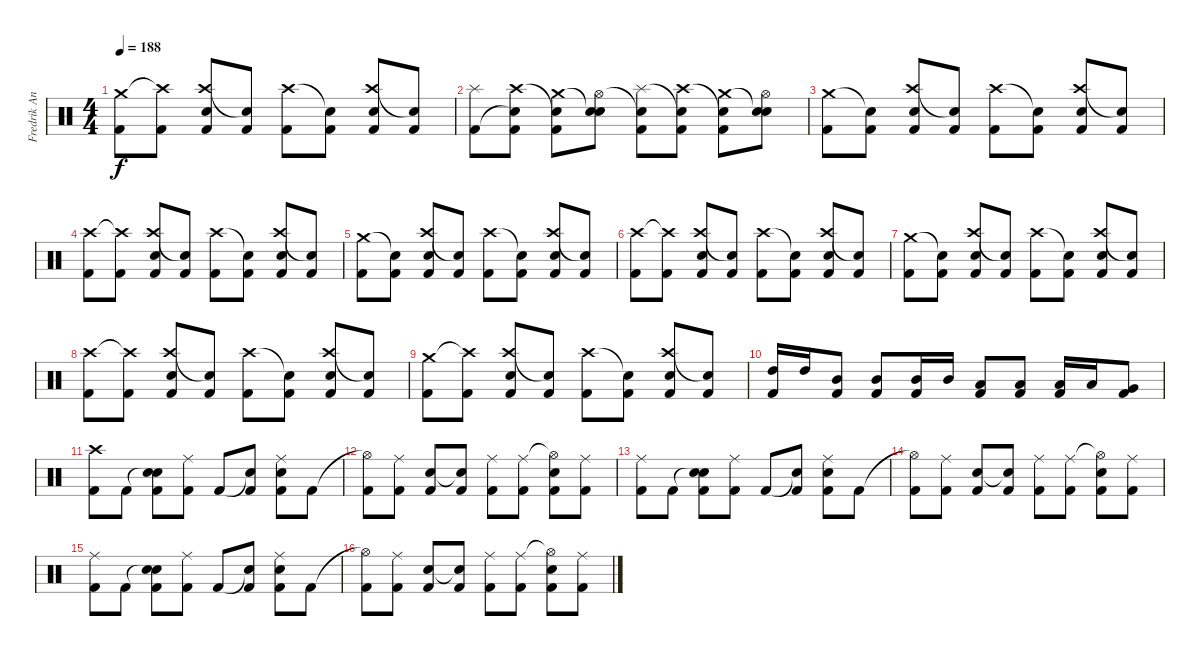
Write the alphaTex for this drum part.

\track ("Fredrik Andersson" "Fredrik An") {instrument percussion}
\staff {score}
\articulation defaults
\ts (4 4)
\tempo 188
\clef neutral
\ks c
("Crash medium (hit)" "Kick (hit) 2").8{dy f} ("Crash high (hit)"{t} "Kick (hit) 2").8 ("Crash high (hit)" "Snare (hit) 2" "Kick (hit) 2").8 ("Snare (hit)"{t} "Kick (hit) 2").8 ("Crash high (hit)" "Kick (hit) 2").8 ("Snare (hit)"{t} "Kick (hit) 2").8 ("Crash high (hit)" "Snare (hit) 2" "Kick (hit) 2").8 ("Snare (hit)"{t} "Kick (hit) 2").8 |
("Splash (hit)" "Kick (hit) 2").8 ("Crash high (hit)" "Snare (hit)"{t} "Kick (hit) 2").8 ("Snare (hit)"{t} "Crash medium (hit)" "Kick (hit) 2").8 ("Hi-Hat (open)" "Snare (hit)"{t} "Snare (hit) 2").8 ("Snare (hit)"{t} "Splash (hit)" "Kick (hit) 2").8 ("Crash high (hit)" "Snare (hit)"{t} "Kick (hit) 2").8 ("Snare (hit)"{t} "Crash medium (hit)" "Kick (hit) 2").8 ("Hi-Hat (open)" "Snare (hit)"{t} "Snare (hit) 2").8 |
("Crash medium (hit)" "Kick (hit) 2").8 ("Snare (hit)"{t} "Kick (hit) 2").8 ("Crash high (hit)" "Snare (hit) 2" "Kick (hit) 2").8 ("Snare (hit)"{t} "Kick (hit) 2").8 ("Crash high (hit)" "Kick (hit) 2").8 ("Snare (hit)"{t} "Kick (hit) 2").8 ("Crash high (hit)" "Snare (hit) 2" "Kick (hit) 2").8 ("Snare (hit)"{t} "Kick (hit) 2").8 |
("Crash high (hit)" "Kick (hit) 2").8 ("Crash high (hit)"{t} "Kick (hit) 2").8 ("Crash high (hit)" "Snare (hit) 2" "Kick (hit) 2").8 ("Snare (hit)"{t} "Kick (hit) 2").8 ("Crash high (hit)" "Kick (hit) 2").8 ("Snare (hit)"{t} "Kick (hit) 2").8 ("Crash high (hit)" "Snare (hit) 2" "Kick (hit) 2").8 ("Snare (hit)"{t} "Kick (hit) 2").8 |
("Crash medium (hit)" "Kick (hit) 2").8 ("Snare (hit)"{t} "Kick (hit) 2").8 ("Crash high (hit)" "Snare (hit) 2" "Kick (hit) 2").8 ("Snare (hit)"{t} "Kick (hit) 2").8 ("Crash high (hit)" "Kick (hit) 2").8 ("Snare (hit)"{t} "Kick (hit) 2").8 ("Crash high (hit)" "Snare (hit) 2" "Kick (hit) 2").8 ("Snare (hit)"{t} "Kick (hit) 2").8 |
("Crash high (hit)" "Kick (hit) 2").8 ("Crash high (hit)"{t} "Kick (hit) 2").8 ("Crash high (hit)" "Snare (hit) 2" "Kick (hit) 2").8 ("Snare (hit)"{t} "Kick (hit) 2").8 ("Crash high (hit)" "Kick (hit) 2").8 ("Snare (hit)"{t} "Kick (hit) 2").8 ("Crash high (hit)" "Snare (hit) 2" "Kick (hit) 2").8 ("Snare (hit)"{t} "Kick (hit) 2").8 |
("Crash medium (hit)" "Kick (hit) 2").8 ("Snare (hit)"{t} "Kick (hit) 2").8 ("Crash high (hit)" "Snare (hit) 2" "Kick (hit) 2").8 ("Snare (hit)"{t} "Kick (hit) 2").8 ("Crash high (hit)" "Kick (hit) 2").8 ("Snare (hit)"{t} "Kick (hit) 2").8 ("Crash high (hit)" "Snare (hit) 2" "Kick (hit) 2").8 ("Snare (hit)"{t} "Kick (hit) 2").8 |
("Crash high (hit)" "Kick (hit) 2").8 ("Crash high (hit)"{t} "Kick (hit) 2").8 ("Crash high (hit)" "Snare (hit) 2" "Kick (hit) 2").8 ("Snare (hit)"{t} "Kick (hit) 2").8 ("Crash high (hit)" "Kick (hit) 2").8 ("Snare (hit)"{t} "Kick (hit) 2").8 ("Crash high (hit)" "Snare (hit) 2" "Kick (hit) 2").8 ("Snare (hit)"{t} "Kick (hit) 2").8 |
("Crash medium (hit)" "Kick (hit) 2").8 ("Crash high (hit)"{t} "Kick (hit) 2").8 ("Crash high (hit)" "Snare (hit) 2" "Kick (hit) 2").8 ("Snare (hit)"{t} "Kick (hit) 2").8 ("Crash high (hit)" "Kick (hit) 2").8 ("Snare (hit)"{t} "Kick (hit) 2").8 ("Crash high (hit)" "Snare (hit) 2" "Kick (hit) 2").8 ("Snare (hit)"{t} "Kick (hit) 2").8 |
("High Tom (hit)" "Kick (hit) 2").16 "High Tom (hit)".16 ("Mid Tom (hit)" "Kick (hit) 2").8 ("Mid Tom (hit)" "Kick (hit) 2").8 ("Mid Tom (hit)" "Kick (hit) 2").16 "Mid Tom (hit)".16 ("Low Tom (hit)" "Kick (hit) 2").8 ("Low Tom (hit)" "Kick (hit) 2").8 ("Low Tom (hit)" "Kick (hit) 2").16 "Low Tom (hit)".16 ("Very Low Tom (hit)" "Kick (hit) 2").8 |
("Crash high (hit)" "Kick (hit) 2").8 "Kick (hit) 2".8 ("Snare (hit)"{t} "Snare (hit) 2" "Kick (hit) 2").8 ("Ride (middle)" "Kick (hit) 2").8 "Kick (hit) 2".8 ("Snare (hit)"{t} "Kick (hit) 2").8 ("Ride (middle)" "Snare (hit) 2" "Kick (hit) 2").8 "Kick (hit) 2".8 |
("Hi-Hat (open)"{t} "Kick (hit) 2").8 ("Ride (middle)" "Kick (hit) 2").8 ("Snare (hit) 2" "Kick (hit) 2").8 ("Snare (hit)"{t} "Kick (hit) 2").8 ("Ride (middle)" "Kick (hit) 2").8 ("Ride (middle)" "Kick (hit) 2").8 ("Hi-Hat (open)"{t} "Snare (hit) 2" "Kick (hit) 2").8 ("Ride (middle)" "Kick (hit) 2").8 |
("Ride (middle)" "Kick (hit) 2").8 "Kick (hit) 2".8 ("Snare (hit)"{t} "Snare (hit) 2" "Kick (hit) 2").8 ("Ride (middle)" "Kick (hit) 2").8 "Kick (hit) 2".8 ("Snare (hit)"{t} "Kick (hit) 2").8 ("Ride (middle)" "Snare (hit) 2" "Kick (hit) 2").8 "Kick (hit) 2".8 |
("Hi-Hat (open)"{t} "Kick (hit) 2").8 ("Ride (middle)" "Kick (hit) 2").8 ("Snare (hit) 2" "Kick (hit) 2").8 ("Snare (hit)"{t} "Kick (hit) 2").8 ("Ride (middle)" "Kick (hit) 2").8 ("Ride (middle)" "Kick (hit) 2").8 ("Hi-Hat (open)"{t} "Snare (hit) 2" "Kick (hit) 2").8 ("Ride (middle)" "Kick (hit) 2").8 |
("Ride (middle)" "Kick (hit) 2").8 "Kick (hit) 2".8 ("Snare (hit)"{t} "Snare (hit) 2" "Kick (hit) 2").8 ("Ride (middle)" "Kick (hit) 2").8 "Kick (hit) 2".8 ("Snare (hit)"{t} "Kick (hit) 2").8 ("Ride (middle)" "Snare (hit) 2" "Kick (hit) 2").8 "Kick (hit) 2".8 |
("Hi-Hat (open)"{t} "Kick (hit) 2").8 ("Ride (middle)" "Kick (hit) 2").8 ("Snare (hit) 2" "Kick (hit) 2").8 ("Snare (hit)"{t} "Kick (hit) 2").8 ("Ride (middle)" "Kick (hit) 2").8 ("Ride (middle)" "Kick (hit) 2").8 ("Hi-Hat (open)"{t} "Snare (hit) 2" "Kick (hit) 2").8 ("Ride (middle)" "Kick (hit) 2").8
